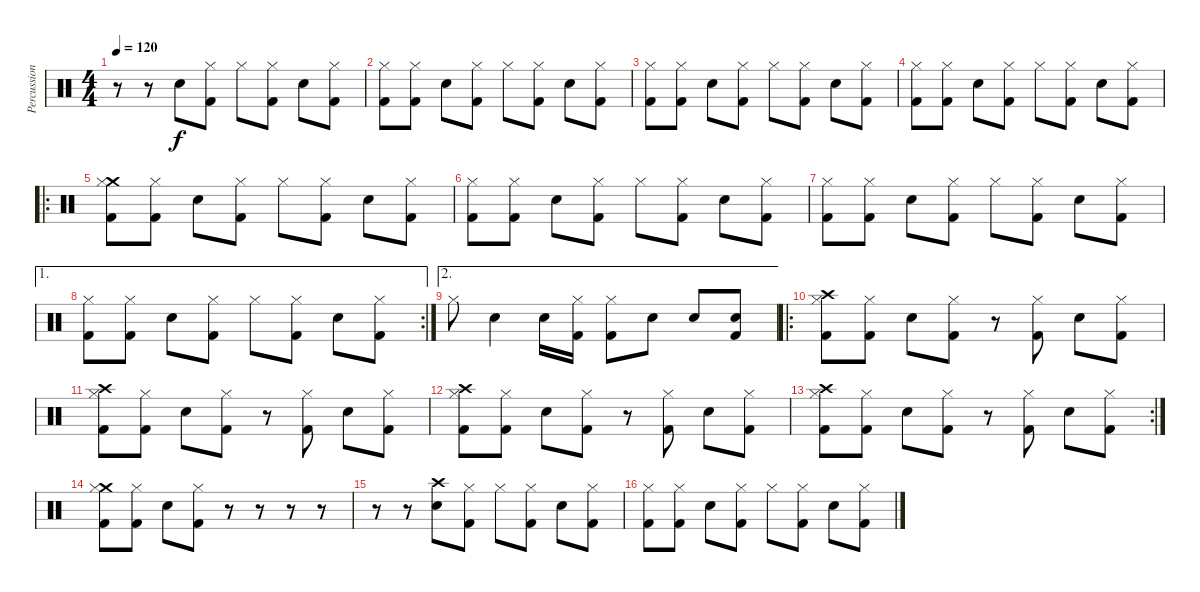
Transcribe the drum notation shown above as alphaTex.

\track ("Percussion" "Percussion") {instrument percussion}
\staff {score}
\articulation defaults
\ts (4 4)
\tempo 120
\clef neutral
\ks c
r.8{dy f} r.8 "Electric Snare (hit)".8 ("Hi-Hat (closed)" "Kick (hit) 2").8 "Hi-Hat (closed)".8 ("Hi-Hat (closed)" "Kick (hit) 2").8 "Electric Snare (hit)".8 ("Hi-Hat (closed)" "Kick (hit) 2").8 |
("Hi-Hat (closed)" "Kick (hit) 2").8 ("Hi-Hat (closed)" "Kick (hit) 2").8 "Electric Snare (hit)".8 ("Hi-Hat (closed)" "Kick (hit) 2").8 "Hi-Hat (closed)".8 ("Hi-Hat (closed)" "Kick (hit) 2").8 "Electric Snare (hit)".8 ("Hi-Hat (closed)" "Kick (hit) 2").8 |
("Hi-Hat (closed)" "Kick (hit) 2").8 ("Hi-Hat (closed)" "Kick (hit) 2").8 "Electric Snare (hit)".8 ("Hi-Hat (closed)" "Kick (hit) 2").8 "Hi-Hat (closed)".8 ("Hi-Hat (closed)" "Kick (hit) 2").8 "Electric Snare (hit)".8 ("Hi-Hat (closed)" "Kick (hit) 2").8 |
("Hi-Hat (closed)" "Kick (hit) 2").8 ("Hi-Hat (closed)" "Kick (hit) 2").8 "Electric Snare (hit)".8 ("Hi-Hat (closed)" "Kick (hit) 2").8 "Hi-Hat (closed)".8 ("Hi-Hat (closed)" "Kick (hit) 2").8 "Electric Snare (hit)".8 ("Hi-Hat (closed)" "Kick (hit) 2").8 |
\ro
("Crash medium (hit)" "Hi-Hat (closed)" "Kick (hit) 2").8 ("Hi-Hat (closed)" "Kick (hit) 2").8 "Electric Snare (hit)".8 ("Hi-Hat (closed)" "Kick (hit) 2").8 "Hi-Hat (closed)".8 ("Hi-Hat (closed)" "Kick (hit) 2").8 "Electric Snare (hit)".8 ("Hi-Hat (closed)" "Kick (hit) 2").8 |
("Hi-Hat (closed)" "Kick (hit) 2").8 ("Hi-Hat (closed)" "Kick (hit) 2").8 "Electric Snare (hit)".8 ("Hi-Hat (closed)" "Kick (hit) 2").8 "Hi-Hat (closed)".8 ("Hi-Hat (closed)" "Kick (hit) 2").8 "Electric Snare (hit)".8 ("Hi-Hat (closed)" "Kick (hit) 2").8 |
("Hi-Hat (closed)" "Kick (hit) 2").8 ("Hi-Hat (closed)" "Kick (hit) 2").8 "Electric Snare (hit)".8 ("Hi-Hat (closed)" "Kick (hit) 2").8 "Hi-Hat (closed)".8 ("Hi-Hat (closed)" "Kick (hit) 2").8 "Electric Snare (hit)".8 ("Hi-Hat (closed)" "Kick (hit) 2").8 |
\ae 1
\rc 2
("Hi-Hat (closed)" "Kick (hit) 2").8 ("Hi-Hat (closed)" "Kick (hit) 2").8 "Electric Snare (hit)".8 ("Hi-Hat (closed)" "Kick (hit) 2").8 "Hi-Hat (closed)".8 ("Hi-Hat (closed)" "Kick (hit) 2").8 "Electric Snare (hit)".8 ("Hi-Hat (closed)" "Kick (hit) 2").8 |
\ae 2 "Hi-Hat (closed)".8 "Electric Snare (hit)".4 "Electric Snare (hit)".16
("Hi-Hat (closed)" "Kick (hit) 2").16 ("Hi-Hat (closed)" "Kick (hit) 2").8 "Electric Snare (hit)".8 "Electric Snare (hit)".8 ("Electric Snare (hit)" "Kick (hit) 2").8 |
\ro
("Crash high (hit)" "Hi-Hat (closed)" "Kick (hit) 2").8 ("Hi-Hat (closed)" "Kick (hit) 2").8 "Electric Snare (hit)".8 ("Hi-Hat (closed)" "Kick (hit) 2").8 r.8 ("Hi-Hat (closed)" "Kick (hit) 2").8 "Electric Snare (hit)".8 ("Hi-Hat (closed)" "Kick (hit) 2").8 |
("Crash high (hit)" "Hi-Hat (closed)" "Kick (hit) 2").8 ("Hi-Hat (closed)" "Kick (hit) 2").8 "Electric Snare (hit)".8 ("Hi-Hat (closed)" "Kick (hit) 2").8 r.8 ("Hi-Hat (closed)" "Kick (hit) 2").8 "Electric Snare (hit)".8 ("Hi-Hat (closed)" "Kick (hit) 2").8 |
("Crash high (hit)" "Hi-Hat (closed)" "Kick (hit) 2").8 ("Hi-Hat (closed)" "Kick (hit) 2").8 "Electric Snare (hit)".8 ("Hi-Hat (closed)" "Kick (hit) 2").8 r.8 ("Hi-Hat (closed)" "Kick (hit) 2").8 "Electric Snare (hit)".8 ("Hi-Hat (closed)" "Kick (hit) 2").8 |
\rc 2
("Crash high (hit)" "Hi-Hat (closed)" "Kick (hit) 2").8 ("Hi-Hat (closed)" "Kick (hit) 2").8 "Electric Snare (hit)".8 ("Hi-Hat (closed)" "Kick (hit) 2").8 r.8 ("Hi-Hat (closed)" "Kick (hit) 2").8 "Electric Snare (hit)".8 ("Hi-Hat (closed)" "Kick (hit) 2").8 |
("Crash medium (hit)" "Hi-Hat (closed)" "Kick (hit) 2").8 ("Hi-Hat (closed)" "Kick (hit) 2").8 "Electric Snare (hit)".8 ("Hi-Hat (closed)" "Kick (hit) 2").8 r.8 r.8 r.8 r.8 |
r.8 r.8 ("Crash high (hit)" "Electric Snare (hit)").8 ("Hi-Hat (closed)" "Kick (hit) 2").8 "Hi-Hat (closed)".8 ("Hi-Hat (closed)" "Kick (hit) 2").8 "Electric Snare (hit)".8 ("Hi-Hat (closed)" "Kick (hit) 2").8 |
("Hi-Hat (closed)" "Kick (hit) 2").8 ("Hi-Hat (closed)" "Kick (hit) 2").8 "Electric Snare (hit)".8 ("Hi-Hat (closed)" "Kick (hit) 2").8 "Hi-Hat (closed)".8 ("Hi-Hat (closed)" "Kick (hit) 2").8 "Electric Snare (hit)".8 ("Hi-Hat (closed)" "Kick (hit) 2").8
